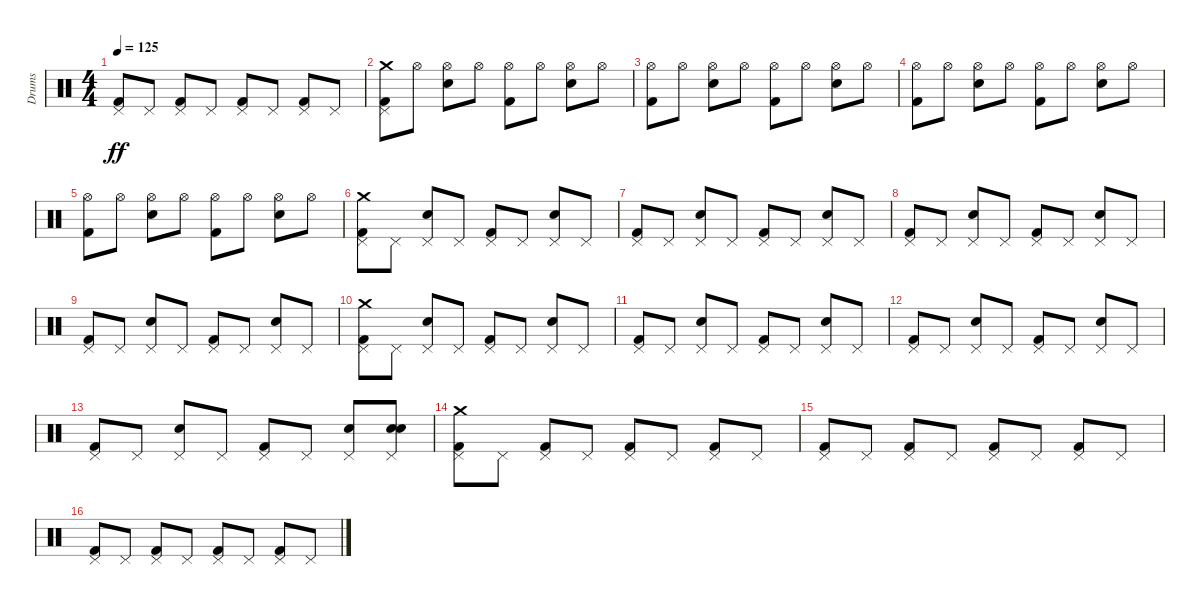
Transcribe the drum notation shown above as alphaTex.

\track ("Drums" "Drums") {instrument percussion}
\staff {score}
\articulation defaults
\ts (4 4)
\tempo 125
\clef neutral
\ks c
("Pedal Hi-Hat (hit)" "Kick (hit) 2").8{dy ff} "Pedal Hi-Hat (hit)".8 ("Pedal Hi-Hat (hit)" "Kick (hit) 2").8 "Pedal Hi-Hat (hit)".8 ("Pedal Hi-Hat (hit)" "Kick (hit) 2").8 "Pedal Hi-Hat (hit)".8 ("Pedal Hi-Hat (hit)" "Kick (hit) 2").8 "Pedal Hi-Hat (hit)".8 |
("Pedal Hi-Hat (hit)" "Kick (hit) 2" "Crash medium (hit)").8 "Hi-Hat (open)".8 ("Hi-Hat (open)" "Snare (hit) 2").8 "Hi-Hat (open)".8 ("Hi-Hat (open)" "Kick (hit) 2").8 "Hi-Hat (open)".8 ("Hi-Hat (open)" "Snare (hit) 2").8 "Hi-Hat (open)".8 |
("Kick (hit) 2" "Hi-Hat (open)").8 "Hi-Hat (open)".8 ("Hi-Hat (open)" "Snare (hit) 2").8 "Hi-Hat (open)".8 ("Hi-Hat (open)" "Kick (hit) 2").8 "Hi-Hat (open)".8 ("Hi-Hat (open)" "Snare (hit) 2").8 "Hi-Hat (open)".8 |
("Kick (hit) 2" "Hi-Hat (open)").8 "Hi-Hat (open)".8 ("Hi-Hat (open)" "Snare (hit) 2").8 "Hi-Hat (open)".8 ("Hi-Hat (open)" "Kick (hit) 2").8 "Hi-Hat (open)".8 ("Hi-Hat (open)" "Snare (hit) 2").8 "Hi-Hat (open)".8 |
("Kick (hit) 2" "Hi-Hat (open)").8 "Hi-Hat (open)".8 ("Hi-Hat (open)" "Snare (hit) 2").8 "Hi-Hat (open)".8 ("Hi-Hat (open)" "Kick (hit) 2").8 "Hi-Hat (open)".8 ("Hi-Hat (open)" "Snare (hit) 2").8 "Hi-Hat (open)".8 |
("Pedal Hi-Hat (hit)" "Kick (hit) 2" "Crash medium (hit)").8 "Pedal Hi-Hat (hit)".8 ("Pedal Hi-Hat (hit)" "Electric Snare (hit)").8 "Pedal Hi-Hat (hit)".8 ("Pedal Hi-Hat (hit)" "Kick (hit) 2").8 "Pedal Hi-Hat (hit)".8 ("Pedal Hi-Hat (hit)" "Electric Snare (hit)").8 "Pedal Hi-Hat (hit)".8 |
("Pedal Hi-Hat (hit)" "Kick (hit) 2").8 "Pedal Hi-Hat (hit)".8 ("Pedal Hi-Hat (hit)" "Electric Snare (hit)").8 "Pedal Hi-Hat (hit)".8 ("Pedal Hi-Hat (hit)" "Kick (hit) 2").8 "Pedal Hi-Hat (hit)".8 ("Pedal Hi-Hat (hit)" "Electric Snare (hit)").8 "Pedal Hi-Hat (hit)".8 |
("Pedal Hi-Hat (hit)" "Kick (hit) 2").8 "Pedal Hi-Hat (hit)".8 ("Pedal Hi-Hat (hit)" "Electric Snare (hit)").8 "Pedal Hi-Hat (hit)".8 ("Pedal Hi-Hat (hit)" "Kick (hit) 2").8 "Pedal Hi-Hat (hit)".8 ("Pedal Hi-Hat (hit)" "Electric Snare (hit)").8 "Pedal Hi-Hat (hit)".8 |
("Pedal Hi-Hat (hit)" "Kick (hit) 2").8 "Pedal Hi-Hat (hit)".8 ("Pedal Hi-Hat (hit)" "Electric Snare (hit)").8 "Pedal Hi-Hat (hit)".8 ("Pedal Hi-Hat (hit)" "Kick (hit) 2").8 "Pedal Hi-Hat (hit)".8 ("Pedal Hi-Hat (hit)" "Electric Snare (hit)").8 "Pedal Hi-Hat (hit)".8 |
("Pedal Hi-Hat (hit)" "Kick (hit) 2" "Crash medium (hit)").8 "Pedal Hi-Hat (hit)".8 ("Pedal Hi-Hat (hit)" "Electric Snare (hit)").8 "Pedal Hi-Hat (hit)".8 ("Pedal Hi-Hat (hit)" "Kick (hit) 2").8 "Pedal Hi-Hat (hit)".8 ("Pedal Hi-Hat (hit)" "Electric Snare (hit)").8 "Pedal Hi-Hat (hit)".8 |
("Pedal Hi-Hat (hit)" "Kick (hit) 2").8 "Pedal Hi-Hat (hit)".8 ("Pedal Hi-Hat (hit)" "Electric Snare (hit)").8 "Pedal Hi-Hat (hit)".8 ("Pedal Hi-Hat (hit)" "Kick (hit) 2").8 "Pedal Hi-Hat (hit)".8 ("Pedal Hi-Hat (hit)" "Electric Snare (hit)").8 "Pedal Hi-Hat (hit)".8 |
("Pedal Hi-Hat (hit)" "Kick (hit) 2").8 "Pedal Hi-Hat (hit)".8 ("Pedal Hi-Hat (hit)" "Electric Snare (hit)").8 "Pedal Hi-Hat (hit)".8 ("Pedal Hi-Hat (hit)" "Kick (hit) 2").8 "Pedal Hi-Hat (hit)".8 ("Pedal Hi-Hat (hit)" "Electric Snare (hit)").8 "Pedal Hi-Hat (hit)".8 |
("Pedal Hi-Hat (hit)" "Kick (hit) 2").8 "Pedal Hi-Hat (hit)".8 ("Pedal Hi-Hat (hit)" "Electric Snare (hit)").8 "Pedal Hi-Hat (hit)".8 ("Pedal Hi-Hat (hit)" "Kick (hit) 2").8 "Pedal Hi-Hat (hit)".8 ("Pedal Hi-Hat (hit)" "Electric Snare (hit)").8 ("Pedal Hi-Hat (hit)" "Electric Snare (hit)" "Electric Snare (hit)").8 |
("Pedal Hi-Hat (hit)" "Kick (hit) 2" "Crash medium (hit)").8 "Pedal Hi-Hat (hit)".8 ("Pedal Hi-Hat (hit)" "Kick (hit) 2").8 "Pedal Hi-Hat (hit)".8 ("Pedal Hi-Hat (hit)" "Kick (hit) 2").8 "Pedal Hi-Hat (hit)".8 ("Pedal Hi-Hat (hit)" "Kick (hit) 2").8 "Pedal Hi-Hat (hit)".8 |
("Pedal Hi-Hat (hit)" "Kick (hit) 2").8 "Pedal Hi-Hat (hit)".8 ("Pedal Hi-Hat (hit)" "Kick (hit) 2").8 "Pedal Hi-Hat (hit)".8 ("Pedal Hi-Hat (hit)" "Kick (hit) 2").8 "Pedal Hi-Hat (hit)".8 ("Pedal Hi-Hat (hit)" "Kick (hit) 2").8 "Pedal Hi-Hat (hit)".8 |
("Pedal Hi-Hat (hit)" "Kick (hit) 2").8 "Pedal Hi-Hat (hit)".8 ("Pedal Hi-Hat (hit)" "Kick (hit) 2").8 "Pedal Hi-Hat (hit)".8 ("Pedal Hi-Hat (hit)" "Kick (hit) 2").8 "Pedal Hi-Hat (hit)".8 ("Pedal Hi-Hat (hit)" "Kick (hit) 2").8 "Pedal Hi-Hat (hit)".8
